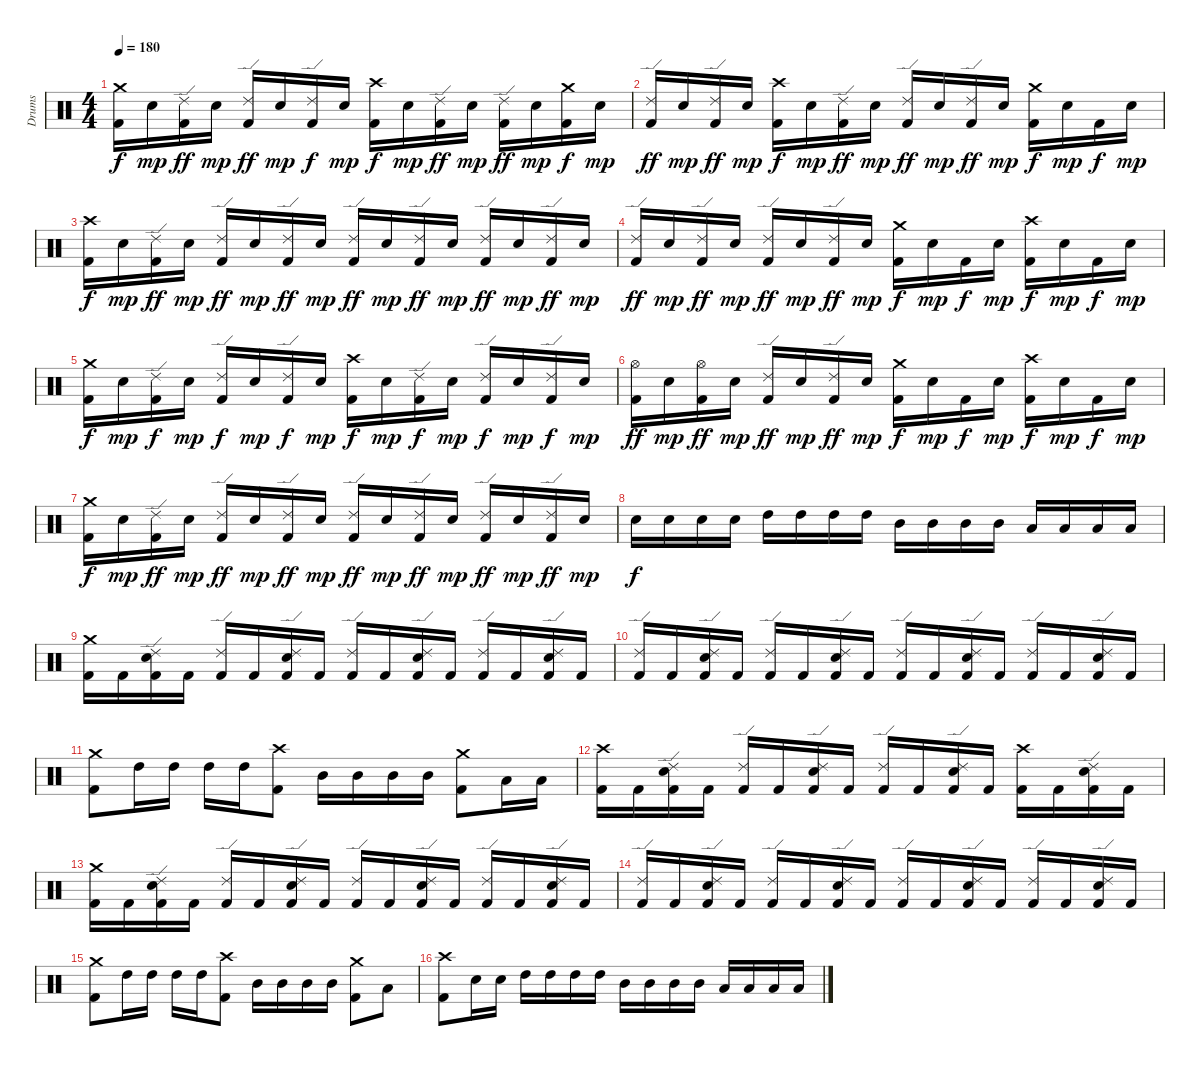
\track ("Drums" "Drums") {instrument percussion}
\staff {score}
\articulation defaults
\ts (4 4)
\tempo 180
\clef neutral
\ks c
("Crash medium (hit)" "Kick (hit) 2").16{dy f} "Electric Snare (hit)".16{dy mp} ("Ride (edge) 2" "Kick (hit) 2").16{dy ff} "Electric Snare (hit)".16{dy mp} ("Ride (edge) 2" "Kick (hit) 2").16{dy ff} "Electric Snare (hit)".16{dy mp} ("Ride (edge) 2" "Kick (hit) 2").16{dy f} "Electric Snare (hit)".16{dy mp} ("Crash high (hit)" "Kick (hit) 2").16{dy f} "Electric Snare (hit)".16{dy mp} ("Ride (edge) 2" "Kick (hit) 2").16{dy ff} "Electric Snare (hit)".16{dy mp} ("Ride (edge) 2" "Kick (hit) 2").16{dy ff} "Electric Snare (hit)".16{dy mp} ("Crash medium (hit)" "Kick (hit) 2").16{dy f} "Electric Snare (hit)".16{dy mp} |
("Ride (edge) 2" "Kick (hit) 2").16{dy ff} "Electric Snare (hit)".16{dy mp} ("Ride (edge) 2" "Kick (hit) 2").16{dy ff} "Electric Snare (hit)".16{dy mp} ("Crash high (hit)" "Kick (hit) 2").16{dy f} "Electric Snare (hit)".16{dy mp} ("Ride (edge) 2" "Kick (hit) 2").16{dy ff} "Electric Snare (hit)".16{dy mp} ("Ride (edge) 2" "Kick (hit) 2").16{dy ff} "Electric Snare (hit)".16{dy mp} ("Ride (edge) 2" "Kick (hit) 2").16{dy ff} "Electric Snare (hit)".16{dy mp} ("Crash medium (hit)" "Kick (hit) 2").16{dy f} "Electric Snare (hit)".16{dy mp} "Kick (hit) 2".16{dy f} "Electric Snare (hit)".16{dy mp} |
("Crash high (hit)" "Kick (hit) 2").16{dy f} "Electric Snare (hit)".16{dy mp} ("Ride (edge) 2" "Kick (hit) 2").16{dy ff} "Electric Snare (hit)".16{dy mp} ("Ride (edge) 2" "Kick (hit) 2").16{dy ff} "Electric Snare (hit)".16{dy mp} ("Ride (edge) 2" "Kick (hit) 2").16{dy ff} "Electric Snare (hit)".16{dy mp} ("Ride (edge) 2" "Kick (hit) 2").16{dy ff} "Electric Snare (hit)".16{dy mp} ("Ride (edge) 2" "Kick (hit) 2").16{dy ff} "Electric Snare (hit)".16{dy mp} ("Ride (edge) 2" "Kick (hit) 2").16{dy ff} "Electric Snare (hit)".16{dy mp} ("Ride (edge) 2" "Kick (hit) 2").16{dy ff} "Electric Snare (hit)".16{dy mp} |
("Ride (edge) 2" "Kick (hit) 2").16{dy ff} "Electric Snare (hit)".16{dy mp} ("Ride (edge) 2" "Kick (hit) 2").16{dy ff} "Electric Snare (hit)".16{dy mp} ("Ride (edge) 2" "Kick (hit) 2").16{dy ff} "Electric Snare (hit)".16{dy mp} ("Ride (edge) 2" "Kick (hit) 2").16{dy ff} "Electric Snare (hit)".16{dy mp} ("Crash medium (hit)" "Kick (hit) 2").16{dy f} "Electric Snare (hit)".16{dy mp} "Kick (hit) 2".16{dy f} "Electric Snare (hit)".16{dy mp} ("Crash high (hit)" "Kick (hit) 2").16{dy f} "Electric Snare (hit)".16{dy mp} "Kick (hit) 2".16{dy f} "Electric Snare (hit)".16{dy mp} |
("Crash medium (hit)" "Kick (hit) 2").16{dy f} "Electric Snare (hit)".16{dy mp} ("Ride (edge) 2" "Kick (hit) 2").16{dy f} "Electric Snare (hit)".16{dy mp} ("Ride (edge) 2" "Kick (hit) 2").16{dy f} "Electric Snare (hit)".16{dy mp} ("Ride (edge) 2" "Kick (hit) 2").16{dy f} "Electric Snare (hit)".16{dy mp} ("Crash high (hit)" "Kick (hit) 2").16{dy f} "Electric Snare (hit)".16{dy mp} ("Ride (edge) 2" "Kick (hit) 2").16{dy f} "Electric Snare (hit)".16{dy mp} ("Ride (edge) 2" "Kick (hit) 2").16{dy f} "Electric Snare (hit)".16{dy mp} ("Ride (edge) 2" "Kick (hit) 2").16{dy f} "Electric Snare (hit)".16{dy mp} |
("Hi-Hat (open)" "Kick (hit) 2").16{dy ff} "Electric Snare (hit)".16{dy mp} ("Hi-Hat (open)" "Kick (hit) 2").16{dy ff} "Electric Snare (hit)".16{dy mp} ("Ride (edge) 2" "Kick (hit) 2").16{dy ff} "Electric Snare (hit)".16{dy mp} ("Ride (edge) 2" "Kick (hit) 2").16{dy ff} "Electric Snare (hit)".16{dy mp} ("Crash medium (hit)" "Kick (hit) 2").16{dy f} "Electric Snare (hit)".16{dy mp} "Kick (hit) 2".16{dy f} "Electric Snare (hit)".16{dy mp} ("Crash high (hit)" "Kick (hit) 2").16{dy f} "Electric Snare (hit)".16{dy mp} "Kick (hit) 2".16{dy f} "Electric Snare (hit)".16{dy mp} |
("Crash medium (hit)" "Kick (hit) 2").16{dy f} "Electric Snare (hit)".16{dy mp} ("Ride (edge) 2" "Kick (hit) 2").16{dy ff} "Electric Snare (hit)".16{dy mp} ("Ride (edge) 2" "Kick (hit) 2").16{dy ff} "Electric Snare (hit)".16{dy mp} ("Ride (edge) 2" "Kick (hit) 2").16{dy ff} "Electric Snare (hit)".16{dy mp} ("Ride (edge) 2" "Kick (hit) 2").16{dy ff} "Electric Snare (hit)".16{dy mp} ("Ride (edge) 2" "Kick (hit) 2").16{dy ff} "Electric Snare (hit)".16{dy mp} ("Ride (edge) 2" "Kick (hit) 2").16{dy ff} "Electric Snare (hit)".16{dy mp} ("Ride (edge) 2" "Kick (hit) 2").16{dy ff} "Electric Snare (hit)".16{dy mp} |
"Electric Snare (hit)".16{dy f} "Electric Snare (hit)".16 "Electric Snare (hit)".16 "Electric Snare (hit)".16 "High Tom (hit)".16 "High Tom (hit)".16 "High Tom (hit)".16 "High Tom (hit)".16 "Mid Tom (hit)".16 "Mid Tom (hit)".16 "Mid Tom (hit)".16 "Mid Tom (hit)".16 "Low Tom (hit)".16 "Low Tom (hit)".16 "Low Tom (hit)".16 "Low Tom (hit)".16 |
("Crash medium (hit)" "Kick (hit) 2").16 "Kick (hit) 2".16 ("Ride (edge) 2" "Electric Snare (hit)" "Kick (hit) 2").16 "Kick (hit) 2".16 ("Ride (edge) 2" "Kick (hit) 2").16 "Kick (hit) 2".16 ("Ride (edge) 2" "Electric Snare (hit)" "Kick (hit) 2").16 "Kick (hit) 2".16 ("Ride (edge) 2" "Kick (hit) 2").16 "Kick (hit) 2".16 ("Ride (edge) 2" "Electric Snare (hit)" "Kick (hit) 2").16 "Kick (hit) 2".16 ("Ride (edge) 2" "Kick (hit) 2").16 "Kick (hit) 2".16 ("Ride (edge) 2" "Electric Snare (hit)" "Kick (hit) 2").16 "Kick (hit) 2".16 |
("Ride (edge) 2" "Kick (hit) 2").16 "Kick (hit) 2".16 ("Ride (edge) 2" "Electric Snare (hit)" "Kick (hit) 2").16 "Kick (hit) 2".16 ("Ride (edge) 2" "Kick (hit) 2").16 "Kick (hit) 2".16 ("Ride (edge) 2" "Electric Snare (hit)" "Kick (hit) 2").16 "Kick (hit) 2".16 ("Ride (edge) 2" "Kick (hit) 2").16 "Kick (hit) 2".16 ("Ride (edge) 2" "Electric Snare (hit)" "Kick (hit) 2").16 "Kick (hit) 2".16 ("Ride (edge) 2" "Kick (hit) 2").16 "Kick (hit) 2".16 ("Ride (edge) 2" "Electric Snare (hit)" "Kick (hit) 2").16 "Kick (hit) 2".16 |
("Crash medium (hit)" "Kick (hit) 2").8 "High Tom (hit)".16 "High Tom (hit)".16 "High Tom (hit)".16 "High Tom (hit)".16 ("Crash high (hit)" "Kick (hit) 2").8 "Mid Tom (hit)".16 "Mid Tom (hit)".16 "Mid Tom (hit)".16 "Mid Tom (hit)".16 ("Crash medium (hit)" "Kick (hit) 2").8 "Low Tom (hit)".16 "Low Tom (hit)".16 |
("Crash high (hit)" "Kick (hit) 2").16 "Kick (hit) 2".16 ("Ride (edge) 2" "Electric Snare (hit)" "Kick (hit) 2").16 "Kick (hit) 2".16 ("Ride (edge) 2" "Kick (hit) 2").16 "Kick (hit) 2".16 ("Ride (edge) 2" "Electric Snare (hit)" "Kick (hit) 2").16 "Kick (hit) 2".16 ("Ride (edge) 2" "Kick (hit) 2").16 "Kick (hit) 2".16 ("Ride (edge) 2" "Electric Snare (hit)" "Kick (hit) 2").16 "Kick (hit) 2".16 ("Crash high (hit)" "Kick (hit) 2").16 "Kick (hit) 2".16 ("Ride (edge) 2" "Electric Snare (hit)" "Kick (hit) 2").16 "Kick (hit) 2".16 |
("Crash medium (hit)" "Kick (hit) 2").16 "Kick (hit) 2".16 ("Ride (edge) 2" "Electric Snare (hit)" "Kick (hit) 2").16 "Kick (hit) 2".16 ("Ride (edge) 2" "Kick (hit) 2").16 "Kick (hit) 2".16 ("Ride (edge) 2" "Electric Snare (hit)" "Kick (hit) 2").16 "Kick (hit) 2".16 ("Ride (edge) 2" "Kick (hit) 2").16 "Kick (hit) 2".16 ("Ride (edge) 2" "Electric Snare (hit)" "Kick (hit) 2").16 "Kick (hit) 2".16 ("Ride (edge) 2" "Kick (hit) 2").16 "Kick (hit) 2".16 ("Ride (edge) 2" "Electric Snare (hit)" "Kick (hit) 2").16 "Kick (hit) 2".16 |
("Ride (edge) 2" "Kick (hit) 2").16 "Kick (hit) 2".16 ("Ride (edge) 2" "Electric Snare (hit)" "Kick (hit) 2").16 "Kick (hit) 2".16 ("Ride (edge) 2" "Kick (hit) 2").16 "Kick (hit) 2".16 ("Ride (edge) 2" "Electric Snare (hit)" "Kick (hit) 2").16 "Kick (hit) 2".16 ("Ride (edge) 2" "Kick (hit) 2").16 "Kick (hit) 2".16 ("Ride (edge) 2" "Electric Snare (hit)" "Kick (hit) 2").16 "Kick (hit) 2".16 ("Ride (edge) 2" "Kick (hit) 2").16 "Kick (hit) 2".16 ("Ride (edge) 2" "Electric Snare (hit)" "Kick (hit) 2").16 "Kick (hit) 2".16 |
("Crash medium (hit)" "Kick (hit) 2").8 "High Tom (hit)".16 "High Tom (hit)".16 "High Tom (hit)".16 "High Tom (hit)".16 ("Crash high (hit)" "Kick (hit) 2").8 "Mid Tom (hit)".16 "Mid Tom (hit)".16 "Mid Tom (hit)".16 "Mid Tom (hit)".16 ("Crash medium (hit)" "Kick (hit) 2").8 "Low Tom (hit)".8 |
("Crash high (hit)" "Kick (hit) 2").8 "Electric Snare (hit)".16 "Electric Snare (hit)".16 "High Tom (hit)".16 "High Tom (hit)".16 "High Tom (hit)".16 "High Tom (hit)".16 "Mid Tom (hit)".16 "Mid Tom (hit)".16 "Mid Tom (hit)".16 "Mid Tom (hit)".16 "Low Tom (hit)".16 "Low Tom (hit)".16 "Low Tom (hit)".16 "Low Tom (hit)".16
